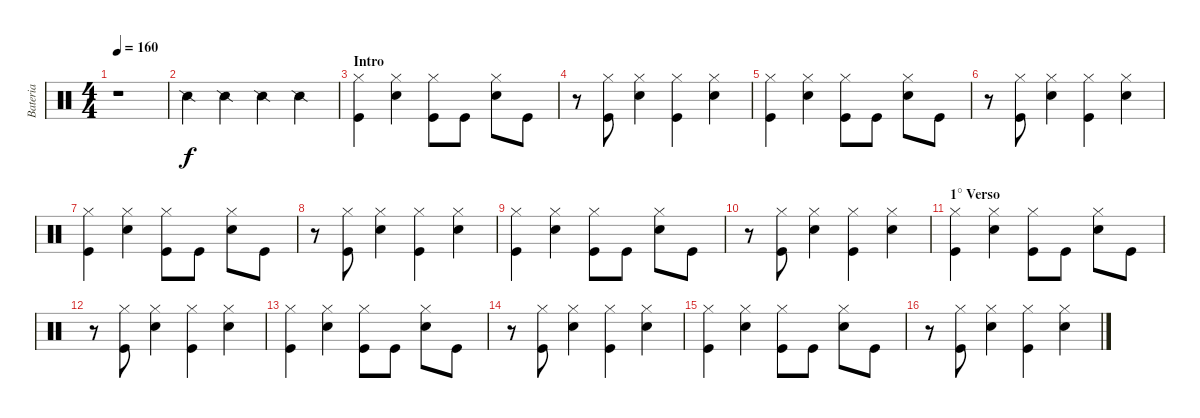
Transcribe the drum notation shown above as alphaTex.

\track ("Bateria" "Bateria") {instrument percussion}
\staff {score}
\articulation defaults
\ts (4 4)
\tempo 160
\clef neutral
\ks c
r.1{dy f} |
"Snare (side stick) 2".4 "Snare (side stick) 2".4 "Snare (side stick) 2".4 "Snare (side stick) 2".4 |
\section ("" "Intro")
("Hi-Hat (closed)" "Kick (hit)").4 ("Hi-Hat (closed)" "Snare (hit) 2").4 ("Hi-Hat (closed)" "Kick (hit)").8 "Kick (hit)".8 ("Hi-Hat (closed)" "Snare (hit) 2").8 "Kick (hit)".8 |
r.8 ("Hi-Hat (closed)" "Kick (hit)").8 ("Hi-Hat (closed)" "Snare (hit) 2").4 ("Hi-Hat (closed)" "Kick (hit)").4 ("Hi-Hat (closed)" "Snare (hit) 2").4 |
("Hi-Hat (closed)" "Kick (hit)").4 ("Hi-Hat (closed)" "Snare (hit) 2").4 ("Hi-Hat (closed)" "Kick (hit)").8 "Kick (hit)".8 ("Hi-Hat (closed)" "Snare (hit) 2").8 "Kick (hit)".8 |
r.8 ("Hi-Hat (closed)" "Kick (hit)").8 ("Hi-Hat (closed)" "Snare (hit) 2").4 ("Hi-Hat (closed)" "Kick (hit)").4 ("Hi-Hat (closed)" "Snare (hit) 2").4 |
("Hi-Hat (closed)" "Kick (hit)").4 ("Hi-Hat (closed)" "Snare (hit) 2").4 ("Hi-Hat (closed)" "Kick (hit)").8 "Kick (hit)".8 ("Hi-Hat (closed)" "Snare (hit) 2").8 "Kick (hit)".8 |
r.8 ("Hi-Hat (closed)" "Kick (hit)").8 ("Hi-Hat (closed)" "Snare (hit) 2").4 ("Hi-Hat (closed)" "Kick (hit)").4 ("Hi-Hat (closed)" "Snare (hit) 2").4 |
("Hi-Hat (closed)" "Kick (hit)").4 ("Hi-Hat (closed)" "Snare (hit) 2").4 ("Hi-Hat (closed)" "Kick (hit)").8 "Kick (hit)".8 ("Hi-Hat (closed)" "Snare (hit) 2").8 "Kick (hit)".8 |
r.8 ("Hi-Hat (closed)" "Kick (hit)").8 ("Hi-Hat (closed)" "Snare (hit) 2").4 ("Hi-Hat (closed)" "Kick (hit)").4 ("Hi-Hat (closed)" "Snare (hit) 2").4 |
\section ("" "1° Verso")
("Hi-Hat (closed)" "Kick (hit)").4 ("Hi-Hat (closed)" "Snare (hit) 2").4 ("Hi-Hat (closed)" "Kick (hit)").8 "Kick (hit)".8 ("Hi-Hat (closed)" "Snare (hit) 2").8 "Kick (hit)".8 |
r.8 ("Hi-Hat (closed)" "Kick (hit)").8 ("Hi-Hat (closed)" "Snare (hit) 2").4 ("Hi-Hat (closed)" "Kick (hit)").4 ("Hi-Hat (closed)" "Snare (hit) 2").4 |
("Hi-Hat (closed)" "Kick (hit)").4 ("Hi-Hat (closed)" "Snare (hit) 2").4 ("Hi-Hat (closed)" "Kick (hit)").8 "Kick (hit)".8 ("Hi-Hat (closed)" "Snare (hit) 2").8 "Kick (hit)".8 |
r.8 ("Hi-Hat (closed)" "Kick (hit)").8 ("Hi-Hat (closed)" "Snare (hit) 2").4 ("Hi-Hat (closed)" "Kick (hit)").4 ("Hi-Hat (closed)" "Snare (hit) 2").4 |
("Hi-Hat (closed)" "Kick (hit)").4 ("Hi-Hat (closed)" "Snare (hit) 2").4 ("Hi-Hat (closed)" "Kick (hit)").8 "Kick (hit)".8 ("Hi-Hat (closed)" "Snare (hit) 2").8 "Kick (hit)".8 |
r.8 ("Hi-Hat (closed)" "Kick (hit)").8 ("Hi-Hat (closed)" "Snare (hit) 2").4 ("Hi-Hat (closed)" "Kick (hit)").4 ("Hi-Hat (closed)" "Snare (hit) 2").4
